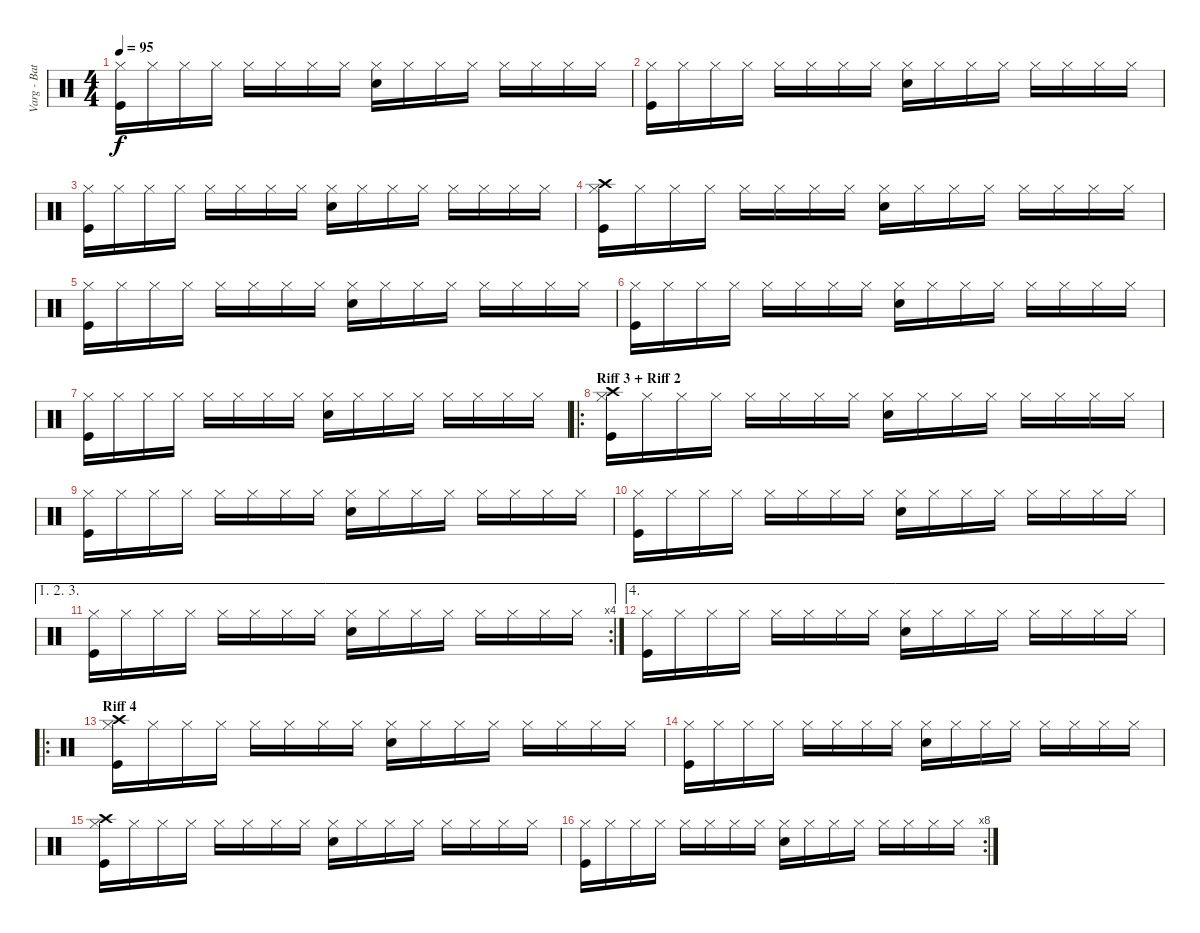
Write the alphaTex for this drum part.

\track ("Varg - Batterie" "Varg - Bat") {instrument percussion}
\staff {score}
\articulation defaults
\ts (4 4)
\tempo 95
\clef neutral
\ks c
("Hi-Hat (closed)" "Kick (hit)").16{dy f} "Hi-Hat (closed)".16 "Hi-Hat (closed)".16 "Hi-Hat (closed)".16 "Hi-Hat (closed)".16 "Hi-Hat (closed)".16 "Hi-Hat (closed)".16 "Hi-Hat (closed)".16 ("Hi-Hat (closed)" "Electric Snare (hit)").16 "Hi-Hat (closed)".16 "Hi-Hat (closed)".16 "Hi-Hat (closed)".16 "Hi-Hat (closed)".16 "Hi-Hat (closed)".16 "Hi-Hat (closed)".16 "Hi-Hat (closed)".16 |
("Hi-Hat (closed)" "Kick (hit)").16 "Hi-Hat (closed)".16 "Hi-Hat (closed)".16 "Hi-Hat (closed)".16 "Hi-Hat (closed)".16 "Hi-Hat (closed)".16 "Hi-Hat (closed)".16 "Hi-Hat (closed)".16 ("Hi-Hat (closed)" "Electric Snare (hit)").16 "Hi-Hat (closed)".16 "Hi-Hat (closed)".16 "Hi-Hat (closed)".16 "Hi-Hat (closed)".16 "Hi-Hat (closed)".16 "Hi-Hat (closed)".16 "Hi-Hat (closed)".16 |
("Hi-Hat (closed)" "Kick (hit)").16 "Hi-Hat (closed)".16 "Hi-Hat (closed)".16 "Hi-Hat (closed)".16 "Hi-Hat (closed)".16 "Hi-Hat (closed)".16 "Hi-Hat (closed)".16 "Hi-Hat (closed)".16 ("Hi-Hat (closed)" "Electric Snare (hit)").16 "Hi-Hat (closed)".16 "Hi-Hat (closed)".16 "Hi-Hat (closed)".16 "Hi-Hat (closed)".16 "Hi-Hat (closed)".16 "Hi-Hat (closed)".16 "Hi-Hat (closed)".16 |
("Hi-Hat (closed)" "Crash high (hit)" "Kick (hit)").16 "Hi-Hat (closed)".16 "Hi-Hat (closed)".16 "Hi-Hat (closed)".16 "Hi-Hat (closed)".16 "Hi-Hat (closed)".16 "Hi-Hat (closed)".16 "Hi-Hat (closed)".16 ("Hi-Hat (closed)" "Electric Snare (hit)").16 "Hi-Hat (closed)".16 "Hi-Hat (closed)".16 "Hi-Hat (closed)".16 "Hi-Hat (closed)".16 "Hi-Hat (closed)".16 "Hi-Hat (closed)".16 "Hi-Hat (closed)".16 |
("Hi-Hat (closed)" "Kick (hit)").16 "Hi-Hat (closed)".16 "Hi-Hat (closed)".16 "Hi-Hat (closed)".16 "Hi-Hat (closed)".16 "Hi-Hat (closed)".16 "Hi-Hat (closed)".16 "Hi-Hat (closed)".16 ("Hi-Hat (closed)" "Electric Snare (hit)").16 "Hi-Hat (closed)".16 "Hi-Hat (closed)".16 "Hi-Hat (closed)".16 "Hi-Hat (closed)".16 "Hi-Hat (closed)".16 "Hi-Hat (closed)".16 "Hi-Hat (closed)".16 |
("Hi-Hat (closed)" "Kick (hit)").16 "Hi-Hat (closed)".16 "Hi-Hat (closed)".16 "Hi-Hat (closed)".16 "Hi-Hat (closed)".16 "Hi-Hat (closed)".16 "Hi-Hat (closed)".16 "Hi-Hat (closed)".16 ("Hi-Hat (closed)" "Electric Snare (hit)").16 "Hi-Hat (closed)".16 "Hi-Hat (closed)".16 "Hi-Hat (closed)".16 "Hi-Hat (closed)".16 "Hi-Hat (closed)".16 "Hi-Hat (closed)".16 "Hi-Hat (closed)".16 |
("Hi-Hat (closed)" "Kick (hit)").16 "Hi-Hat (closed)".16 "Hi-Hat (closed)".16 "Hi-Hat (closed)".16 "Hi-Hat (closed)".16 "Hi-Hat (closed)".16 "Hi-Hat (closed)".16 "Hi-Hat (closed)".16 ("Hi-Hat (closed)" "Electric Snare (hit)").16 "Hi-Hat (closed)".16 "Hi-Hat (closed)".16 "Hi-Hat (closed)".16 "Hi-Hat (closed)".16 "Hi-Hat (closed)".16 "Hi-Hat (closed)".16 "Hi-Hat (closed)".16 |
\ro
\section ("" "Riff 3 + Riff 2")
("Hi-Hat (closed)" "Crash high (hit)" "Kick (hit)").16 "Hi-Hat (closed)".16 "Hi-Hat (closed)".16 "Hi-Hat (closed)".16 "Hi-Hat (closed)".16 "Hi-Hat (closed)".16 "Hi-Hat (closed)".16 "Hi-Hat (closed)".16 ("Hi-Hat (closed)" "Electric Snare (hit)").16 "Hi-Hat (closed)".16 "Hi-Hat (closed)".16 "Hi-Hat (closed)".16 "Hi-Hat (closed)".16 "Hi-Hat (closed)".16 "Hi-Hat (closed)".16 "Hi-Hat (closed)".16 |
("Hi-Hat (closed)" "Kick (hit)").16 "Hi-Hat (closed)".16 "Hi-Hat (closed)".16 "Hi-Hat (closed)".16 "Hi-Hat (closed)".16 "Hi-Hat (closed)".16 "Hi-Hat (closed)".16 "Hi-Hat (closed)".16 ("Hi-Hat (closed)" "Electric Snare (hit)").16 "Hi-Hat (closed)".16 "Hi-Hat (closed)".16 "Hi-Hat (closed)".16 "Hi-Hat (closed)".16 "Hi-Hat (closed)".16 "Hi-Hat (closed)".16 "Hi-Hat (closed)".16 |
("Hi-Hat (closed)" "Kick (hit)").16 "Hi-Hat (closed)".16 "Hi-Hat (closed)".16 "Hi-Hat (closed)".16 "Hi-Hat (closed)".16 "Hi-Hat (closed)".16 "Hi-Hat (closed)".16 "Hi-Hat (closed)".16 ("Hi-Hat (closed)" "Electric Snare (hit)").16 "Hi-Hat (closed)".16 "Hi-Hat (closed)".16 "Hi-Hat (closed)".16 "Hi-Hat (closed)".16 "Hi-Hat (closed)".16 "Hi-Hat (closed)".16 "Hi-Hat (closed)".16 |
\ae (1 2 3)
\rc 4
("Hi-Hat (closed)" "Kick (hit)").16 "Hi-Hat (closed)".16 "Hi-Hat (closed)".16 "Hi-Hat (closed)".16 "Hi-Hat (closed)".16 "Hi-Hat (closed)".16 "Hi-Hat (closed)".16 "Hi-Hat (closed)".16 ("Hi-Hat (closed)" "Electric Snare (hit)").16 "Hi-Hat (closed)".16 "Hi-Hat (closed)".16 "Hi-Hat (closed)".16 "Hi-Hat (closed)".16 "Hi-Hat (closed)".16 "Hi-Hat (closed)".16 "Hi-Hat (closed)".16 |
\ae 4
("Hi-Hat (closed)" "Kick (hit)").16 "Hi-Hat (closed)".16 "Hi-Hat (closed)".16 "Hi-Hat (closed)".16 "Hi-Hat (closed)".16 "Hi-Hat (closed)".16 "Hi-Hat (closed)".16 "Hi-Hat (closed)".16 ("Hi-Hat (closed)" "Electric Snare (hit)").16 "Hi-Hat (closed)".16 "Hi-Hat (closed)".16 "Hi-Hat (closed)".16 "Hi-Hat (closed)".16 "Hi-Hat (closed)".16 "Hi-Hat (closed)".16 "Hi-Hat (closed)".16 |
\ro
\section ("" "Riff 4")
("Hi-Hat (closed)" "Crash high (hit)" "Kick (hit)").16 "Hi-Hat (closed)".16 "Hi-Hat (closed)".16 "Hi-Hat (closed)".16 "Hi-Hat (closed)".16 "Hi-Hat (closed)".16 "Hi-Hat (closed)".16 "Hi-Hat (closed)".16 ("Hi-Hat (closed)" "Electric Snare (hit)").16 "Hi-Hat (closed)".16 "Hi-Hat (closed)".16 "Hi-Hat (closed)".16 "Hi-Hat (closed)".16 "Hi-Hat (closed)".16 "Hi-Hat (closed)".16 "Hi-Hat (closed)".16 |
("Hi-Hat (closed)" "Kick (hit)").16 "Hi-Hat (closed)".16 "Hi-Hat (closed)".16 "Hi-Hat (closed)".16 "Hi-Hat (closed)".16 "Hi-Hat (closed)".16 "Hi-Hat (closed)".16 "Hi-Hat (closed)".16 ("Hi-Hat (closed)" "Electric Snare (hit)").16 "Hi-Hat (closed)".16 "Hi-Hat (closed)".16 "Hi-Hat (closed)".16 "Hi-Hat (closed)".16 "Hi-Hat (closed)".16 "Hi-Hat (closed)".16 "Hi-Hat (closed)".16 |
("Hi-Hat (closed)" "Crash high (hit)" "Kick (hit)").16 "Hi-Hat (closed)".16 "Hi-Hat (closed)".16 "Hi-Hat (closed)".16 "Hi-Hat (closed)".16 "Hi-Hat (closed)".16 "Hi-Hat (closed)".16 "Hi-Hat (closed)".16 ("Hi-Hat (closed)" "Electric Snare (hit)").16 "Hi-Hat (closed)".16 "Hi-Hat (closed)".16 "Hi-Hat (closed)".16 "Hi-Hat (closed)".16 "Hi-Hat (closed)".16 "Hi-Hat (closed)".16 "Hi-Hat (closed)".16 |
\rc 8
("Hi-Hat (closed)" "Kick (hit)").16 "Hi-Hat (closed)".16 "Hi-Hat (closed)".16 "Hi-Hat (closed)".16 "Hi-Hat (closed)".16 "Hi-Hat (closed)".16 "Hi-Hat (closed)".16 "Hi-Hat (closed)".16 ("Hi-Hat (closed)" "Electric Snare (hit)").16 "Hi-Hat (closed)".16 "Hi-Hat (closed)".16 "Hi-Hat (closed)".16 "Hi-Hat (closed)".16 "Hi-Hat (closed)".16 "Hi-Hat (closed)".16 "Hi-Hat (closed)".16
